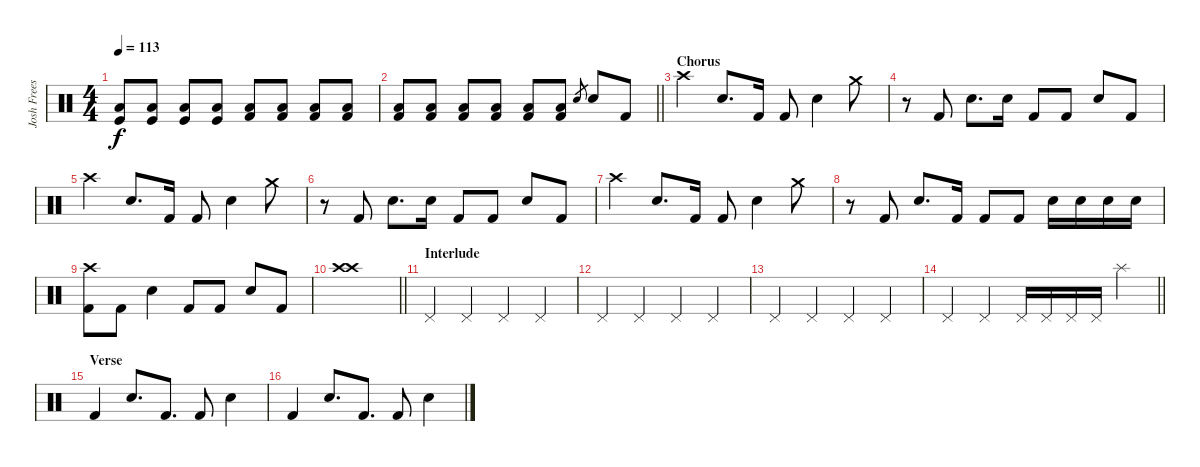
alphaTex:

\track ("Josh Freese (Studio Drummer)" "Josh Frees") {instrument percussion}
\staff {score}
\articulation defaults
\ts (4 4)
\tempo 113
\clef neutral
\ks c
("Kick (hit)" "Low Floor Tom (hit)").8{dy f} ("Kick (hit)" "Low Floor Tom (hit)").8 ("Kick (hit)" "Low Floor Tom (hit)").8 ("Kick (hit)" "Low Floor Tom (hit)").8 ("Kick (hit) 2" "Low Floor Tom (hit)").8 ("Kick (hit) 2" "Low Floor Tom (hit)").8 ("Kick (hit) 2" "Low Floor Tom (hit)").8 ("Kick (hit) 2" "Low Floor Tom (hit)").8 |
\barLineRight lightlight
("Kick (hit) 2" "Low Floor Tom (hit)").8 ("Kick (hit) 2" "Low Floor Tom (hit)").8 ("Kick (hit) 2" "Low Floor Tom (hit)").8 ("Kick (hit) 2" "Low Floor Tom (hit)").8 ("Kick (hit) 2" "Low Floor Tom (hit)").8 ("Kick (hit) 2" "Low Floor Tom (hit)").8 "Electric Snare (hit)".8{gr} "Electric Snare (hit)".8 "Kick (hit) 2".8 |
\section ("" "Chorus")
"Crash high (hit)".4 "Electric Snare (hit)".8{d} "Kick (hit) 2".16 "Kick (hit) 2".8 "Electric Snare (hit)".4 "Crash medium (hit)".8 |
r.8 "Kick (hit) 2".8 "Electric Snare (hit)".8{d} "Electric Snare (hit)".16 "Kick (hit) 2".8 "Kick (hit) 2".8 "Electric Snare (hit)".8 "Kick (hit) 2".8 |
"Crash high (hit)".4 "Electric Snare (hit)".8{d} "Kick (hit) 2".16 "Kick (hit) 2".8 "Electric Snare (hit)".4 "Crash medium (hit)".8 |
r.8 "Kick (hit) 2".8 "Electric Snare (hit)".8{d} "Electric Snare (hit)".16 "Kick (hit) 2".8 "Kick (hit) 2".8 "Electric Snare (hit)".8 "Kick (hit) 2".8 |
"Crash high (hit)".4 "Electric Snare (hit)".8{d} "Kick (hit) 2".16 "Kick (hit) 2".8 "Electric Snare (hit)".4 "Crash medium (hit)".8 |
r.8 "Kick (hit) 2".8 "Electric Snare (hit)".8{d} "Kick (hit) 2".16 "Kick (hit) 2".8 "Kick (hit) 2".8 "Electric Snare (hit)".16 "Electric Snare (hit)".16 "Electric Snare (hit)".16 "Electric Snare (hit)".16 |
("Crash high (hit)" "Kick (hit) 2").8 "Kick (hit) 2".8 "Electric Snare (hit)".4 "Kick (hit) 2".8 "Kick (hit) 2".8 "Electric Snare (hit)".8 "Kick (hit) 2".8 |
\barLineRight lightlight
("Crash high (hit)" "Crash high (hit)").1 |
\section ("" "Interlude")
"Pedal Hi-Hat (hit)".4 "Pedal Hi-Hat (hit)".4 "Pedal Hi-Hat (hit)".4 "Pedal Hi-Hat (hit)".4 |
"Pedal Hi-Hat (hit)".4 "Pedal Hi-Hat (hit)".4 "Pedal Hi-Hat (hit)".4 "Pedal Hi-Hat (hit)".4 |
"Pedal Hi-Hat (hit)".4 "Pedal Hi-Hat (hit)".4 "Pedal Hi-Hat (hit)".4 "Pedal Hi-Hat (hit)".4 |
\barLineRight lightlight "Pedal Hi-Hat (hit)".4 "Pedal Hi-Hat (hit)".4 "Pedal Hi-Hat (hit)".16 "Pedal Hi-Hat (hit)".16 "Pedal Hi-Hat (hit)".16 "Pedal Hi-Hat (hit)".16 "Splash (hit)".4
|
\section ("" "Verse")
"Kick (hit) 2".4 "Electric Snare (hit)".8{d} "Kick (hit) 2".8{d} "Kick (hit) 2".8 "Electric Snare (hit)".4 |
"Kick (hit) 2".4 "Electric Snare (hit)".8{d} "Kick (hit) 2".8{d} "Kick (hit) 2".8 "Electric Snare (hit)".4
